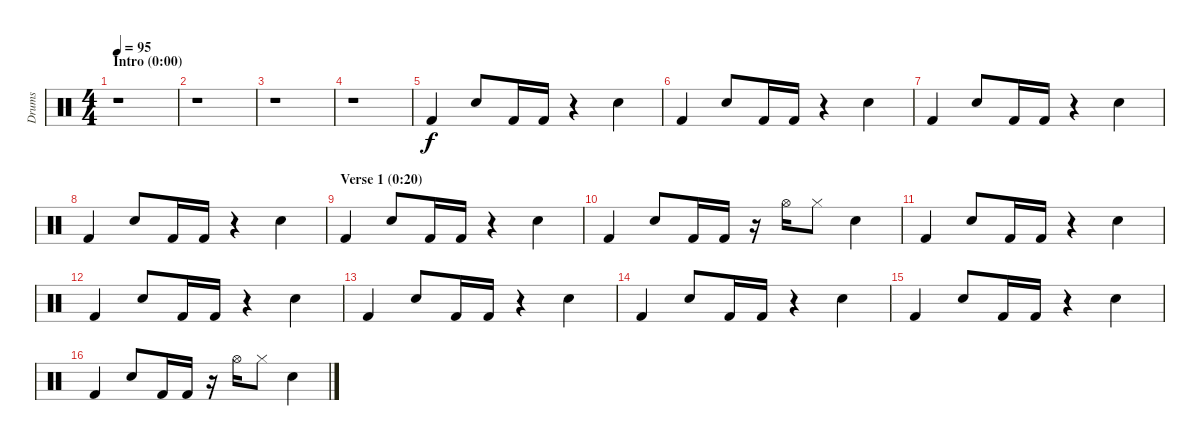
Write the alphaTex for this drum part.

\track ("Drums" "Drums") {instrument percussion}
\staff {score}
\articulation defaults
\ts (4 4)
\section ("" "Intro (0:00)")
\tempo 95
\clef neutral
\ks c
r.1{dy f} |
r.1 |
r.1 |
r.1 |
"Kick (hit) 2".4 "Snare (hit) 2".8 "Kick (hit) 2".16 "Kick (hit) 2".16 r.4 "Snare (hit) 2".4 |
"Kick (hit) 2".4 "Snare (hit) 2".8 "Kick (hit) 2".16 "Kick (hit) 2".16 r.4 "Snare (hit) 2".4 |
"Kick (hit) 2".4 "Snare (hit) 2".8 "Kick (hit) 2".16 "Kick (hit) 2".16 r.4 "Snare (hit) 2".4 |
"Kick (hit) 2".4 "Snare (hit) 2".8 "Kick (hit) 2".16 "Kick (hit) 2".16 r.4 "Snare (hit) 2".4 |
\section ("" "Verse 1 (0:20)")
"Kick (hit) 2".4 "Snare (hit) 2".8 "Kick (hit) 2".16 "Kick (hit) 2".16 r.4 "Snare (hit) 2".4 |
"Kick (hit) 2".4 "Snare (hit) 2".8 "Kick (hit) 2".16 "Kick (hit) 2".16 r.16 "Hi-Hat (open)".16 "Hi-Hat (closed)".8 "Snare (hit) 2".4 |
"Kick (hit) 2".4 "Snare (hit) 2".8 "Kick (hit) 2".16 "Kick (hit) 2".16 r.4 "Snare (hit) 2".4 |
"Kick (hit) 2".4 "Snare (hit) 2".8 "Kick (hit) 2".16 "Kick (hit) 2".16 r.4 "Snare (hit) 2".4 |
"Kick (hit) 2".4 "Snare (hit) 2".8 "Kick (hit) 2".16 "Kick (hit) 2".16 r.4 "Snare (hit) 2".4 |
"Kick (hit) 2".4 "Snare (hit) 2".8 "Kick (hit) 2".16 "Kick (hit) 2".16 r.4 "Snare (hit) 2".4 |
"Kick (hit) 2".4 "Snare (hit) 2".8 "Kick (hit) 2".16 "Kick (hit) 2".16 r.4 "Snare (hit) 2".4 |
"Kick (hit) 2".4 "Snare (hit) 2".8 "Kick (hit) 2".16 "Kick (hit) 2".16 r.16 "Hi-Hat (open)".16 "Hi-Hat (closed)".8 "Snare (hit) 2".4
